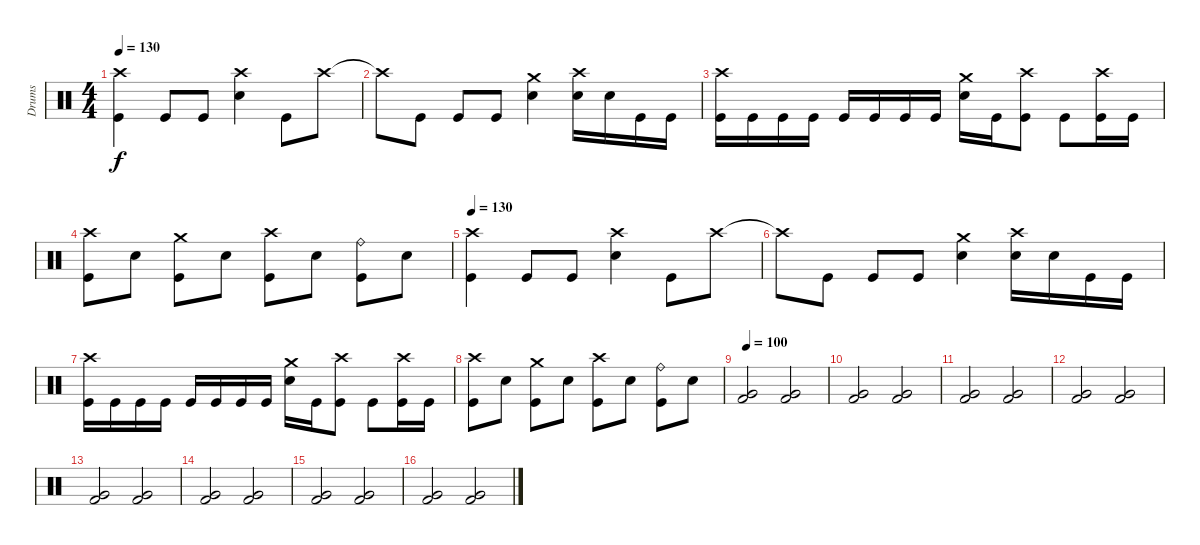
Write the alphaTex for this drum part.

\track ("Drums" "Drums") {instrument percussion}
\staff {score}
\articulation defaults
\ts (4 4)
\tempo 140
\tempo 130
\clef neutral
\ks c
("Crash high (hit)" "Kick (hit)").4{dy f} "Kick (hit)".8 "Kick (hit)".8 ("Crash high (hit)" "Electric Snare (hit)").4 "Kick (hit)".8 "Crash high (hit)".8 |
"Crash high (hit)"{t}.8 "Kick (hit)".8 "Kick (hit)".8 "Kick (hit)".8 ("Crash medium (hit)" "Electric Snare (hit)").4 ("Crash high (hit)" "Electric Snare (hit)").16 "Electric Snare (hit)".16 "Kick (hit)".16 "Kick (hit)".16 |
("Crash high (hit)" "Kick (hit)").16 "Kick (hit)".16 "Kick (hit)".16 "Kick (hit)".16 "Kick (hit)".16 "Kick (hit)".16 "Kick (hit)".16 "Kick (hit)".16 ("Crash medium (hit)" "Electric Snare (hit)").16 "Kick (hit)".16 ("Crash high (hit)" "Kick (hit)").8 "Kick (hit)".8 ("Crash high (hit)" "Kick (hit)").16 "Kick (hit)".16 |
("Crash high (hit)" "Kick (hit)").8 "Electric Snare (hit)".8 ("Crash medium (hit)" "Kick (hit)").8 "Electric Snare (hit)".8 ("Crash high (hit)" "Kick (hit)").8 "Electric Snare (hit)".8 ("Ride (bell)" "Kick (hit)").8 "Electric Snare (hit)".8 |
\tempo 140
\tempo 130
("Crash high (hit)" "Kick (hit)").4 "Kick (hit)".8 "Kick (hit)".8 ("Crash high (hit)" "Electric Snare (hit)").4 "Kick (hit)".8 "Crash high (hit)".8 |
"Crash high (hit)"{t}.8 "Kick (hit)".8 "Kick (hit)".8 "Kick (hit)".8 ("Crash medium (hit)" "Electric Snare (hit)").4 ("Crash high (hit)" "Electric Snare (hit)").16 "Electric Snare (hit)".16 "Kick (hit)".16 "Kick (hit)".16 |
("Crash high (hit)" "Kick (hit)").16 "Kick (hit)".16 "Kick (hit)".16 "Kick (hit)".16 "Kick (hit)".16 "Kick (hit)".16 "Kick (hit)".16 "Kick (hit)".16 ("Crash medium (hit)" "Electric Snare (hit)").16 "Kick (hit)".16 ("Crash high (hit)" "Kick (hit)").8 "Kick (hit)".8 ("Crash high (hit)" "Kick (hit)").16 "Kick (hit)".16 |
("Crash high (hit)" "Kick (hit)").8 "Electric Snare (hit)".8 ("Crash medium (hit)" "Kick (hit)").8 "Electric Snare (hit)".8 ("Crash high (hit)" "Kick (hit)").8 "Electric Snare (hit)".8 ("Ride (bell)" "Kick (hit)").8 "Electric Snare (hit)".8 |
\tempo 100
("Kick (hit) 2" "Very Low Tom (hit)").2{volume 16} ("Kick (hit) 2" "Very Low Tom (hit)").2 |
("Kick (hit) 2" "Very Low Tom (hit)").2 ("Kick (hit) 2" "Very Low Tom (hit)").2 |
("Kick (hit) 2" "Very Low Tom (hit)").2 ("Kick (hit) 2" "Very Low Tom (hit)").2 |
("Kick (hit) 2" "Very Low Tom (hit)").2 ("Kick (hit) 2" "Very Low Tom (hit)").2 |
("Kick (hit) 2" "Very Low Tom (hit)").2 ("Kick (hit) 2" "Very Low Tom (hit)").2 |
("Kick (hit) 2" "Very Low Tom (hit)").2 ("Kick (hit) 2" "Very Low Tom (hit)").2 |
("Kick (hit) 2" "Very Low Tom (hit)").2 ("Kick (hit) 2" "Very Low Tom (hit)").2 |
("Kick (hit) 2" "Very Low Tom (hit)").2 ("Kick (hit) 2" "Very Low Tom (hit)").2
